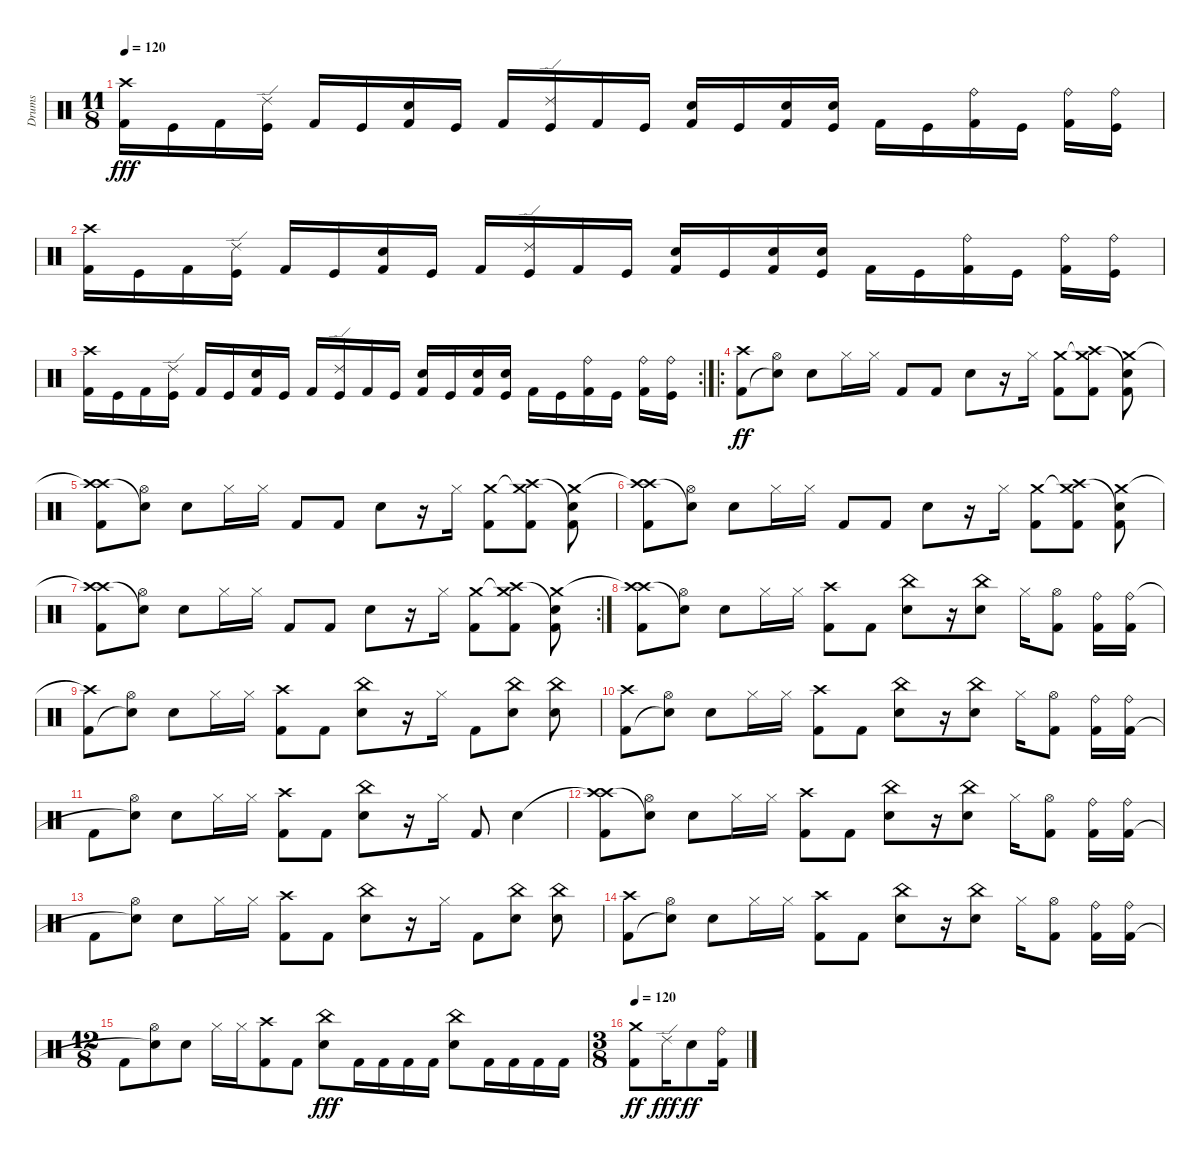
\track ("Drums" "Drums") {instrument percussion}
\staff {score}
\articulation defaults
\ts (11 8)
\tempo 120
\clef neutral
\ks c
("Crash high (hit)" "Kick (hit) 2").16{dy fff} "Kick (hit)".16 "Kick (hit) 2".16 ("Ride (edge) 2" "Kick (hit)").16 "Kick (hit) 2".16 "Kick (hit)".16 ("Snare (hit) 2" "Kick (hit) 2").16 "Kick (hit)".16 "Kick (hit) 2".16 ("Ride (edge) 2" "Kick (hit)").16 "Kick (hit) 2".16 "Kick (hit)".16 ("Snare (hit) 2" "Kick (hit) 2").16 "Kick (hit)".16 ("Snare (hit) 2" "Kick (hit) 2").16 ("Snare (hit) 2" "Kick (hit)").16 "Kick (hit) 2".16 "Kick (hit)".16 ("Ride (bell)" "Kick (hit) 2").16 "Kick (hit)".16 ("Ride (bell)" "Kick (hit) 2").16 ("Ride (bell)" "Kick (hit)").16 |
("Crash high (hit)" "Kick (hit) 2").16 "Kick (hit)".16 "Kick (hit) 2".16 ("Ride (edge) 2" "Kick (hit)").16 "Kick (hit) 2".16 "Kick (hit)".16 ("Snare (hit) 2" "Kick (hit) 2").16 "Kick (hit)".16 "Kick (hit) 2".16 ("Ride (edge) 2" "Kick (hit)").16 "Kick (hit) 2".16 "Kick (hit)".16 ("Snare (hit) 2" "Kick (hit) 2").16 "Kick (hit)".16 ("Snare (hit) 2" "Kick (hit) 2").16 ("Snare (hit) 2" "Kick (hit)").16 "Kick (hit) 2".16 "Kick (hit)".16 ("Ride (bell)" "Kick (hit) 2").16 "Kick (hit)".16 ("Ride (bell)" "Kick (hit) 2").16 ("Ride (bell)" "Kick (hit)").16 |
\rc 2
("Crash high (hit)" "Kick (hit) 2").16 "Kick (hit)".16 "Kick (hit) 2".16 ("Ride (edge) 2" "Kick (hit)").16 "Kick (hit) 2".16 "Kick (hit)".16 ("Snare (hit) 2" "Kick (hit) 2").16 "Kick (hit)".16 "Kick (hit) 2".16 ("Ride (edge) 2" "Kick (hit)").16 "Kick (hit) 2".16 "Kick (hit)".16 ("Snare (hit) 2" "Kick (hit) 2").16 "Kick (hit)".16 ("Snare (hit) 2" "Kick (hit) 2").16 ("Snare (hit) 2" "Kick (hit)").16 "Kick (hit) 2".16 "Kick (hit)".16 ("Ride (bell)" "Kick (hit) 2").16 "Kick (hit)".16 ("Ride (bell)" "Kick (hit) 2").16 ("Ride (bell)" "Kick (hit)").16 |
\ro
("Crash high (hit)" "Kick (hit) 2").8{dy ff} ("Hi-Hat (open)" "Snare (hit)"{t}).8 "Snare (hit) 2".8 "Hi-Hat (closed)".16 "Hi-Hat (closed)".16 "Kick (hit) 2".8 "Kick (hit) 2".8 "Snare (hit) 2".8 r.16 "Hi-Hat (closed)".16 ("Crash medium (hit)" "Kick (hit) 2").8 ("Crash medium (hit)"{t} "Crash high (hit)" "Kick (hit) 2").8 ("Crash medium (hit)" "Snare (hit)"{t} "Kick (hit) 2").8 |
("Crash high (hit)"{t} "Crash high (hit)" "Kick (hit) 2").8 ("Hi-Hat (open)" "Snare (hit)"{t}).8 "Snare (hit) 2".8 "Hi-Hat (closed)".16 "Hi-Hat (closed)".16 "Kick (hit) 2".8 "Kick (hit) 2".8 "Snare (hit) 2".8 r.16 "Hi-Hat (closed)".16 ("Crash medium (hit)" "Kick (hit) 2").8 ("Crash medium (hit)"{t} "Crash high (hit)" "Kick (hit) 2").8 ("Crash medium (hit)" "Snare (hit)"{t} "Kick (hit) 2").8 |
("Crash high (hit)"{t} "Crash high (hit)" "Kick (hit) 2").8 ("Hi-Hat (open)" "Snare (hit)"{t}).8 "Snare (hit) 2".8 "Hi-Hat (closed)".16 "Hi-Hat (closed)".16 "Kick (hit) 2".8 "Kick (hit) 2".8 "Snare (hit) 2".8 r.16 "Hi-Hat (closed)".16 ("Crash medium (hit)" "Kick (hit) 2").8 ("Crash medium (hit)"{t} "Crash high (hit)" "Kick (hit) 2").8 ("Crash medium (hit)" "Snare (hit)"{t} "Kick (hit) 2").8 |
\rc 2
("Crash high (hit)"{t} "Crash high (hit)" "Kick (hit) 2").8 ("Hi-Hat (open)" "Snare (hit)"{t}).8 "Snare (hit) 2".8 "Hi-Hat (closed)".16 "Hi-Hat (closed)".16 "Kick (hit) 2".8 "Kick (hit) 2".8 "Snare (hit) 2".8 r.16 "Hi-Hat (closed)".16 ("Crash medium (hit)" "Kick (hit) 2").8 ("Crash medium (hit)"{t} "Crash high (hit)" "Kick (hit) 2").8 ("Crash medium (hit)" "Snare (hit)"{t} "Kick (hit) 2").8 |
("Crash high (hit)"{t} "Crash high (hit)" "Kick (hit) 2").8 ("Hi-Hat (open)" "Snare (hit)"{t}).8 "Snare (hit) 2".8 "Hi-Hat (closed)".16 "Hi-Hat (closed)".16 ("Crash high (hit)" "Kick (hit) 2").8 "Kick (hit) 2".8 ("China (hit)" "Snare (hit) 2").8 r.16 ("China (hit)" "Snare (hit) 2").8 "Hi-Hat (closed)".16 ("Hi-Hat (open)" "Kick (hit) 2").8 ("Ride (bell)" "Kick (hit) 2").16 ("Ride (bell)" "Kick (hit) 2").16 |
("Crash high (hit)"{t} "Kick (hit) 2").8 ("Hi-Hat (open)" "Snare (hit)"{t}).8 "Snare (hit) 2".8 "Hi-Hat (closed)".16 "Hi-Hat (closed)".16 ("Crash high (hit)" "Kick (hit) 2").8 "Kick (hit) 2".8 ("China (hit)" "Snare (hit) 2").8 r.16 "Hi-Hat (closed)".16 "Kick (hit) 2".8 ("China (hit)" "Snare (hit) 2").8 ("China (hit)" "Snare (hit) 2").8 |
("Crash high (hit)" "Kick (hit) 2").8 ("Hi-Hat (open)" "Snare (hit)"{t}).8 "Snare (hit) 2".8 "Hi-Hat (closed)".16 "Hi-Hat (closed)".16 ("Crash high (hit)" "Kick (hit) 2").8 "Kick (hit) 2".8 ("China (hit)" "Snare (hit) 2").8 r.16 ("China (hit)" "Snare (hit) 2").8 "Hi-Hat (closed)".16 ("Hi-Hat (open)" "Kick (hit) 2").8 ("Ride (bell)" "Kick (hit) 2").16 ("Ride (bell)" "Kick (hit) 2").16 |
"Kick (hit) 2".8 ("Hi-Hat (open)" "Snare (hit)"{t}).8 "Snare (hit) 2".8 "Hi-Hat (closed)".16 "Hi-Hat (closed)".16 ("Crash high (hit)" "Kick (hit) 2").8 "Kick (hit) 2".8 ("China (hit)" "Snare (hit) 2").8 r.16 "Hi-Hat (closed)".16 "Kick (hit) 2".8 "Snare (hit) 2".4 |
("Crash high (hit)"{t} "Crash high (hit)" "Kick (hit) 2").8 ("Hi-Hat (open)" "Snare (hit)"{t}).8 "Snare (hit) 2".8 "Hi-Hat (closed)".16 "Hi-Hat (closed)".16 ("Crash high (hit)" "Kick (hit) 2").8 "Kick (hit) 2".8 ("China (hit)" "Snare (hit) 2").8 r.16 ("China (hit)" "Snare (hit) 2").8 "Hi-Hat (closed)".16 ("Hi-Hat (open)" "Kick (hit) 2").8 ("Ride (bell)" "Kick (hit) 2").16 ("Ride (bell)" "Kick (hit) 2").16 |
"Kick (hit) 2".8 ("Hi-Hat (open)" "Snare (hit)"{t}).8 "Snare (hit) 2".8 "Hi-Hat (closed)".16 "Hi-Hat (closed)".16 ("Crash high (hit)" "Kick (hit) 2").8 "Kick (hit) 2".8 ("China (hit)" "Snare (hit) 2").8 r.16 "Hi-Hat (closed)".16 "Kick (hit) 2".8 ("China (hit)" "Snare (hit) 2").8 ("China (hit)" "Snare (hit) 2").8 |
("Crash high (hit)" "Kick (hit) 2").8 ("Hi-Hat (open)" "Snare (hit)"{t}).8 "Snare (hit) 2".8 "Hi-Hat (closed)".16 "Hi-Hat (closed)".16 ("Crash high (hit)" "Kick (hit) 2").8 "Kick (hit) 2".8 ("China (hit)" "Snare (hit) 2").8 r.16 ("China (hit)" "Snare (hit) 2").8 "Hi-Hat (closed)".16 ("Hi-Hat (open)" "Kick (hit) 2").8 ("Ride (bell)" "Kick (hit) 2").16 ("Ride (bell)" "Kick (hit) 2").16 |
\ts (12 8)
"Kick (hit) 2".8 ("Hi-Hat (open)" "Snare (hit)"{t}).8 "Snare (hit) 2".8 "Hi-Hat (closed)".16 "Hi-Hat (closed)".16 ("Crash high (hit)" "Kick (hit) 2").8 "Kick (hit) 2".8 ("China (hit)" "Snare (hit) 2").8{dy fff} "Kick (hit) 2".16 "Kick (hit) 2".16 "Kick (hit) 2".16 "Kick (hit) 2".16 ("China (hit)" "Snare (hit) 2").8 "Kick (hit) 2".16 "Kick (hit) 2".16 "Kick (hit) 2".16 "Kick (hit) 2".16 |
\ts (3 8)
\tempo 120
("Crash medium (hit)" "Kick (hit) 2").8{dy ff} "Ride (edge) 2".16{dy fff} "Snare (hit) 2".8{dy ff} ("Ride (bell)" "Kick (hit) 2").16
